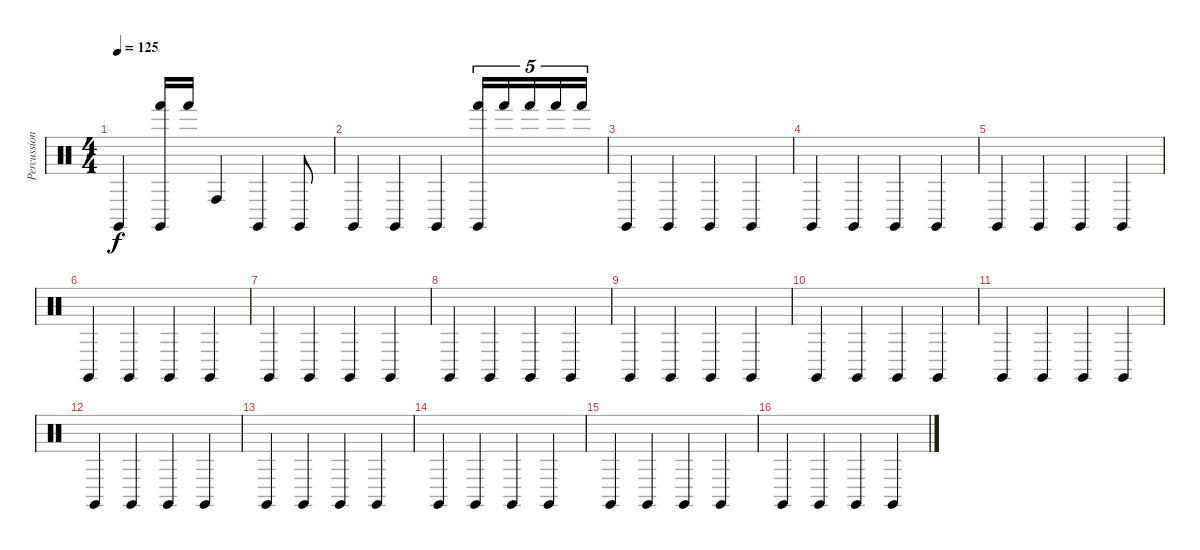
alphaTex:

\track ("Percussion" "Percussion") {instrument percussion}
\staff {score}
\articulation defaults
\ts (4 4)
\tempo 125
\clef neutral
\ks c "Claves (hit)".4{dy f}
("Claves (hit)" "Hand (hit)").16 "Hand (hit)".16 "Conga high (hit)".4 "Claves (hit)".4 "Claves (hit)".8 |
"Claves (hit)".4 "Claves (hit)".4 "Claves (hit)".4 ("Claves (hit)" "Hand (hit)").16{tu (5 4)} "Hand (hit)".16{tu (5 4)} "Hand (hit)".16{tu (5 4)} "Hand (hit)".16{tu (5 4)} "Hand (hit)".16{tu (5 4)} |
"Claves (hit)".4 "Claves (hit)".4 "Claves (hit)".4 "Claves (hit)".4 |
"Claves (hit)".4 "Claves (hit)".4 "Claves (hit)".4 "Claves (hit)".4 |
"Claves (hit)".4 "Claves (hit)".4 "Claves (hit)".4 "Claves (hit)".4 |
"Claves (hit)".4 "Claves (hit)".4 "Claves (hit)".4 "Claves (hit)".4 |
"Claves (hit)".4 "Claves (hit)".4 "Claves (hit)".4 "Claves (hit)".4 |
"Claves (hit)".4 "Claves (hit)".4 "Claves (hit)".4 "Claves (hit)".4 |
"Claves (hit)".4 "Claves (hit)".4 "Claves (hit)".4 "Claves (hit)".4 |
"Claves (hit)".4 "Claves (hit)".4 "Claves (hit)".4 "Claves (hit)".4 |
"Claves (hit)".4 "Claves (hit)".4 "Claves (hit)".4 "Claves (hit)".4 |
"Claves (hit)".4 "Claves (hit)".4 "Claves (hit)".4 "Claves (hit)".4 |
"Claves (hit)".4 "Claves (hit)".4 "Claves (hit)".4 "Claves (hit)".4 |
"Claves (hit)".4 "Claves (hit)".4 "Claves (hit)".4 "Claves (hit)".4 |
"Claves (hit)".4 "Claves (hit)".4 "Claves (hit)".4 "Claves (hit)".4 |
"Claves (hit)".4 "Claves (hit)".4 "Claves (hit)".4 "Claves (hit)".4
